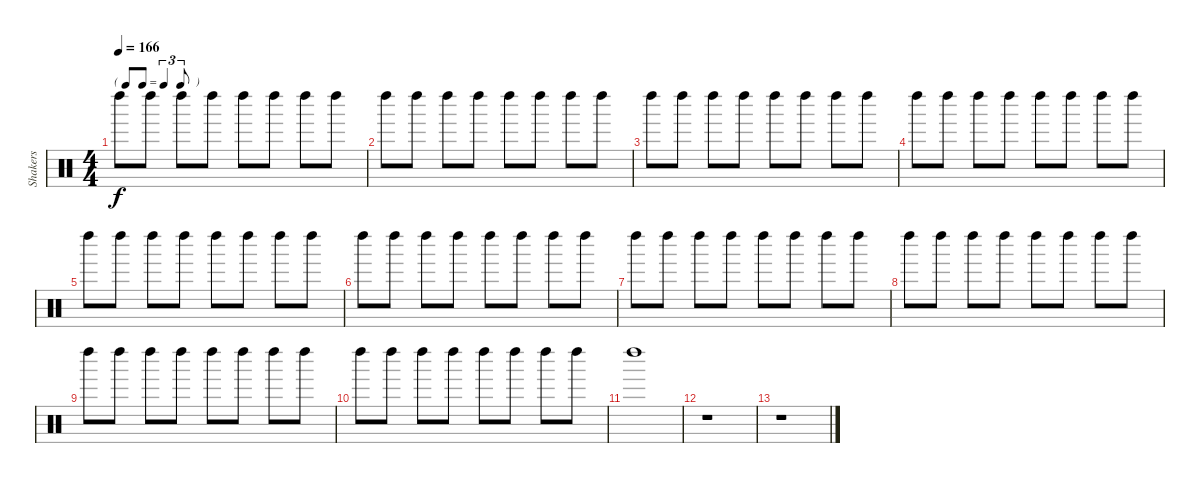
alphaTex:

\track ("Shakers" "Shakers") {instrument percussion}
\staff {score}
\articulation defaults
\ts (4 4)
\tf triplet8th
\tempo 166
\clef neutral
\ks c "Left Maraca (hit)".8{dy f} "Left Maraca (hit)".8 "Left Maraca (hit)".8 "Left Maraca (hit)".8 "Left Maraca (hit)".8 "Left Maraca (hit)".8 "Left Maraca (hit)".8 "Left Maraca (hit)".8
|
"Left Maraca (hit)".8 "Left Maraca (hit)".8 "Left Maraca (hit)".8 "Left Maraca (hit)".8 "Left Maraca (hit)".8 "Left Maraca (hit)".8 "Left Maraca (hit)".8 "Left Maraca (hit)".8 |
"Left Maraca (hit)".8 "Left Maraca (hit)".8 "Left Maraca (hit)".8 "Left Maraca (hit)".8 "Left Maraca (hit)".8 "Left Maraca (hit)".8 "Left Maraca (hit)".8 "Left Maraca (hit)".8 |
"Left Maraca (hit)".8 "Left Maraca (hit)".8 "Left Maraca (hit)".8 "Left Maraca (hit)".8 "Left Maraca (hit)".8 "Left Maraca (hit)".8 "Left Maraca (hit)".8 "Left Maraca (hit)".8 |
"Left Maraca (hit)".8 "Left Maraca (hit)".8 "Left Maraca (hit)".8 "Left Maraca (hit)".8 "Left Maraca (hit)".8 "Left Maraca (hit)".8 "Left Maraca (hit)".8 "Left Maraca (hit)".8 |
"Left Maraca (hit)".8 "Left Maraca (hit)".8 "Left Maraca (hit)".8 "Left Maraca (hit)".8 "Left Maraca (hit)".8 "Left Maraca (hit)".8 "Left Maraca (hit)".8 "Left Maraca (hit)".8 |
"Left Maraca (hit)".8 "Left Maraca (hit)".8 "Left Maraca (hit)".8 "Left Maraca (hit)".8 "Left Maraca (hit)".8 "Left Maraca (hit)".8 "Left Maraca (hit)".8 "Left Maraca (hit)".8 |
"Left Maraca (hit)".8 "Left Maraca (hit)".8 "Left Maraca (hit)".8 "Left Maraca (hit)".8 "Left Maraca (hit)".8 "Left Maraca (hit)".8 "Left Maraca (hit)".8 "Left Maraca (hit)".8 |
"Left Maraca (hit)".8 "Left Maraca (hit)".8 "Left Maraca (hit)".8 "Left Maraca (hit)".8 "Left Maraca (hit)".8 "Left Maraca (hit)".8 "Left Maraca (hit)".8 "Left Maraca (hit)".8 |
"Left Maraca (hit)".8 "Left Maraca (hit)".8 "Left Maraca (hit)".8 "Left Maraca (hit)".8 "Left Maraca (hit)".8 "Left Maraca (hit)".8 "Left Maraca (hit)".8 "Left Maraca (hit)".8 |
"Left Maraca (hit)".1 |
r.1 |
r.1
